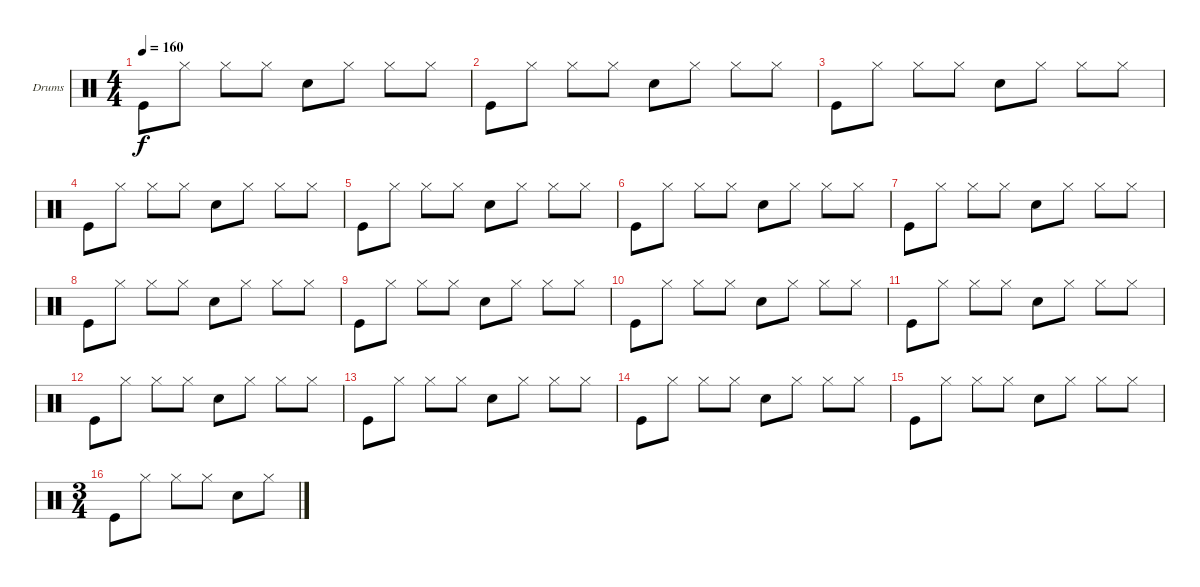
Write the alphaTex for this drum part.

\defaultSystemsLayout 4
\bracketExtendMode nobrackets
\firstSystemTrackNameOrientation horizontal
\otherSystemsTrackNameOrientation horizontal
\track ("Drumkit" "Drums") {instrument percussion}
\staff {score}
\articulation defaults
\ts (4 4)
\tempo 160
\clef neutral
\scale
0.472222
\ks c "Kick (hit)".8{dy f} "Hi-Hat (closed)".8 "Hi-Hat (closed)".8 "Hi-Hat (closed)".8 "Snare (hit) 2".8 "Hi-Hat (closed)".8 "Hi-Hat (closed)".8 "Hi-Hat (closed)".8
|
\scale
0.263889 "Kick (hit)".8 "Hi-Hat (closed)".8 "Hi-Hat (closed)".8 "Hi-Hat (closed)".8 "Snare (hit) 2".8 "Hi-Hat (closed)".8 "Hi-Hat (closed)".8 "Hi-Hat (closed)".8 |
\scale
0.263889 "Kick (hit)".8 "Hi-Hat (closed)".8 "Hi-Hat (closed)".8 "Hi-Hat (closed)".8 "Snare (hit) 2".8 "Hi-Hat (closed)".8 "Hi-Hat (closed)".8 "Hi-Hat (closed)".8 |
\scale
0.333333 "Kick (hit)".8 "Hi-Hat (closed)".8 "Hi-Hat (closed)".8 "Hi-Hat (closed)".8 "Snare (hit) 2".8 "Hi-Hat (closed)".8 "Hi-Hat (closed)".8 "Hi-Hat (closed)".8 |
\scale
0.333333 "Kick (hit)".8 "Hi-Hat (closed)".8 "Hi-Hat (closed)".8 "Hi-Hat (closed)".8 "Snare (hit) 2".8 "Hi-Hat (closed)".8 "Hi-Hat (closed)".8 "Hi-Hat (closed)".8 |
\scale
0.333333 "Kick (hit)".8 "Hi-Hat (closed)".8 "Hi-Hat (closed)".8 "Hi-Hat (closed)".8 "Snare (hit) 2".8 "Hi-Hat (closed)".8 "Hi-Hat (closed)".8 "Hi-Hat (closed)".8 |
\scale
0.333333 "Kick (hit)".8 "Hi-Hat (closed)".8 "Hi-Hat (closed)".8 "Hi-Hat (closed)".8 "Snare (hit) 2".8 "Hi-Hat (closed)".8 "Hi-Hat (closed)".8 "Hi-Hat (closed)".8 |
\scale
0.333333 "Kick (hit)".8 "Hi-Hat (closed)".8 "Hi-Hat (closed)".8 "Hi-Hat (closed)".8 "Snare (hit) 2".8 "Hi-Hat (closed)".8 "Hi-Hat (closed)".8 "Hi-Hat (closed)".8 |
\scale
0.333333 "Kick (hit)".8 "Hi-Hat (closed)".8 "Hi-Hat (closed)".8 "Hi-Hat (closed)".8 "Snare (hit) 2".8 "Hi-Hat (closed)".8 "Hi-Hat (closed)".8 "Hi-Hat (closed)".8 |
\scale
0.333333 "Kick (hit)".8 "Hi-Hat (closed)".8 "Hi-Hat (closed)".8 "Hi-Hat (closed)".8 "Snare (hit) 2".8 "Hi-Hat (closed)".8 "Hi-Hat (closed)".8 "Hi-Hat (closed)".8 |
\scale
0.333333 "Kick (hit)".8 "Hi-Hat (closed)".8 "Hi-Hat (closed)".8 "Hi-Hat (closed)".8 "Snare (hit) 2".8 "Hi-Hat (closed)".8 "Hi-Hat (closed)".8 "Hi-Hat (closed)".8 |
\scale
0.333333 "Kick (hit)".8 "Hi-Hat (closed)".8 "Hi-Hat (closed)".8 "Hi-Hat (closed)".8 "Snare (hit) 2".8 "Hi-Hat (closed)".8 "Hi-Hat (closed)".8 "Hi-Hat (closed)".8 |
\scale
0.333333 "Kick (hit)".8 "Hi-Hat (closed)".8 "Hi-Hat (closed)".8 "Hi-Hat (closed)".8 "Snare (hit) 2".8 "Hi-Hat (closed)".8 "Hi-Hat (closed)".8 "Hi-Hat (closed)".8 |
\scale
0.333333 "Kick (hit)".8 "Hi-Hat (closed)".8 "Hi-Hat (closed)".8 "Hi-Hat (closed)".8 "Snare (hit) 2".8 "Hi-Hat (closed)".8 "Hi-Hat (closed)".8 "Hi-Hat (closed)".8 |
\scale
0.333333 "Kick (hit)".8 "Hi-Hat (closed)".8 "Hi-Hat (closed)".8 "Hi-Hat (closed)".8 "Snare (hit) 2".8 "Hi-Hat (closed)".8 "Hi-Hat (closed)".8 "Hi-Hat (closed)".8 |
\ts (3 4)
\scale
0.369863 "Kick (hit)".8 "Hi-Hat (closed)".8 "Hi-Hat (closed)".8 "Hi-Hat (closed)".8 "Snare (hit) 2".8 "Hi-Hat (closed)".8
